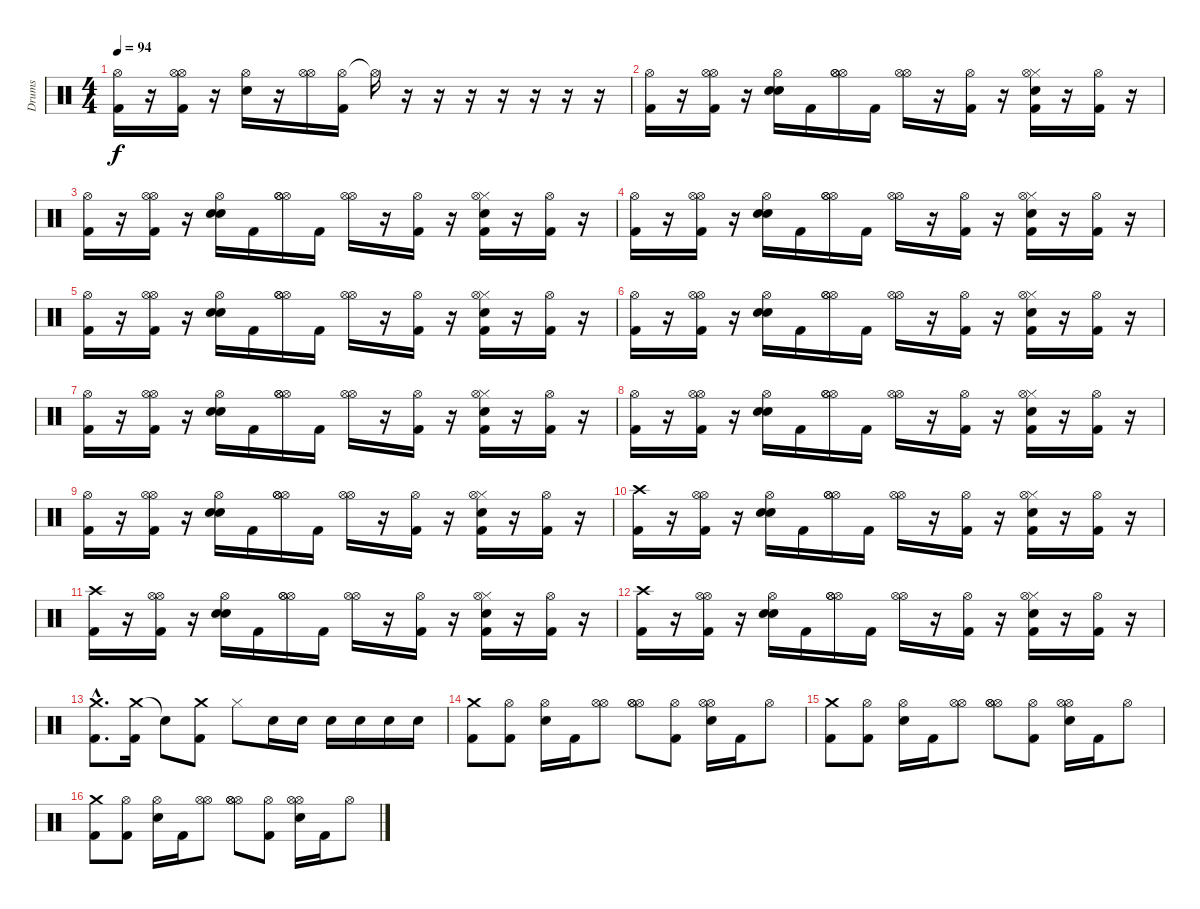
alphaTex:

\track ("Drums" "Drums") {instrument percussion}
\staff {score}
\articulation defaults
\ts (4 4)
\tempo 94
\clef neutral
\ks c
("Hi-Hat (open)" "Kick (hit) 2").16{dy f} r.16 ("Hi-Hat (open)" "Hi-Hat (open)" "Kick (hit) 2").16 r.16 ("Hi-Hat (open)" "Snare (hit) 2").16 r.16 ("Hi-Hat (open)" "Hi-Hat (open)").16 ("Hi-Hat (open)" "Kick (hit) 2").16 "Hi-Hat (open)"{t}.16 r.16 r.16 r.16 r.16 r.16 r.16 r.16 |
("Hi-Hat (open)" "Kick (hit) 2").16 r.16 ("Hi-Hat (open)" "Hi-Hat (open)" "Kick (hit) 2").16 r.16 ("Hi-Hat (open)" "Snare (hit) 2" "Snare (hit) 2").16 "Kick (hit) 2".16 ("Hi-Hat (open)" "Hi-Hat (open)" "Hi-Hat (open)").16 "Kick (hit) 2".16 ("Hi-Hat (open)" "Hi-Hat (open)").16 r.16 ("Hi-Hat (open)" "Kick (hit) 2").16 r.16 ("Hi-Hat (closed)" "Snare (hit) 2" "Hi-Hat (open)" "Kick (hit) 2").16 r.16 ("Hi-Hat (open)" "Kick (hit) 2").16 r.16 |
("Hi-Hat (open)" "Kick (hit) 2").16 r.16 ("Hi-Hat (open)" "Hi-Hat (open)" "Kick (hit) 2").16 r.16 ("Hi-Hat (open)" "Snare (hit) 2" "Snare (hit) 2").16 "Kick (hit) 2".16 ("Hi-Hat (open)" "Hi-Hat (open)" "Hi-Hat (open)").16 "Kick (hit) 2".16 ("Hi-Hat (open)" "Hi-Hat (open)").16 r.16 ("Hi-Hat (open)" "Kick (hit) 2").16 r.16 ("Hi-Hat (closed)" "Snare (hit) 2" "Hi-Hat (open)" "Kick (hit) 2").16 r.16 ("Hi-Hat (open)" "Kick (hit) 2").16 r.16 |
("Hi-Hat (open)" "Kick (hit) 2").16 r.16 ("Hi-Hat (open)" "Hi-Hat (open)" "Kick (hit) 2").16 r.16 ("Hi-Hat (open)" "Snare (hit) 2" "Snare (hit) 2").16 "Kick (hit) 2".16 ("Hi-Hat (open)" "Hi-Hat (open)" "Hi-Hat (open)").16 "Kick (hit) 2".16 ("Hi-Hat (open)" "Hi-Hat (open)").16 r.16 ("Hi-Hat (open)" "Kick (hit) 2").16 r.16 ("Hi-Hat (closed)" "Snare (hit) 2" "Hi-Hat (open)" "Kick (hit) 2").16 r.16 ("Hi-Hat (open)" "Kick (hit) 2").16 r.16 |
("Hi-Hat (open)" "Kick (hit) 2").16 r.16 ("Hi-Hat (open)" "Hi-Hat (open)" "Kick (hit) 2").16 r.16 ("Hi-Hat (open)" "Snare (hit) 2" "Snare (hit) 2").16 "Kick (hit) 2".16 ("Hi-Hat (open)" "Hi-Hat (open)" "Hi-Hat (open)").16 "Kick (hit) 2".16 ("Hi-Hat (open)" "Hi-Hat (open)").16 r.16 ("Hi-Hat (open)" "Kick (hit) 2").16 r.16 ("Hi-Hat (closed)" "Snare (hit) 2" "Hi-Hat (open)" "Kick (hit) 2").16 r.16 ("Hi-Hat (open)" "Kick (hit) 2").16 r.16 |
("Hi-Hat (open)" "Kick (hit) 2").16 r.16 ("Hi-Hat (open)" "Hi-Hat (open)" "Kick (hit) 2").16 r.16 ("Hi-Hat (open)" "Snare (hit) 2" "Snare (hit) 2").16 "Kick (hit) 2".16 ("Hi-Hat (open)" "Hi-Hat (open)" "Hi-Hat (open)").16 "Kick (hit) 2".16 ("Hi-Hat (open)" "Hi-Hat (open)").16 r.16 ("Hi-Hat (open)" "Kick (hit) 2").16 r.16 ("Hi-Hat (closed)" "Snare (hit) 2" "Hi-Hat (open)" "Kick (hit) 2").16 r.16 ("Hi-Hat (open)" "Kick (hit) 2").16 r.16 |
("Hi-Hat (open)" "Kick (hit) 2").16 r.16 ("Hi-Hat (open)" "Hi-Hat (open)" "Kick (hit) 2").16 r.16 ("Hi-Hat (open)" "Snare (hit) 2" "Snare (hit) 2").16 "Kick (hit) 2".16 ("Hi-Hat (open)" "Hi-Hat (open)" "Hi-Hat (open)").16 "Kick (hit) 2".16 ("Hi-Hat (open)" "Hi-Hat (open)").16 r.16 ("Hi-Hat (open)" "Kick (hit) 2").16 r.16 ("Hi-Hat (closed)" "Snare (hit) 2" "Hi-Hat (open)" "Kick (hit) 2").16 r.16 ("Hi-Hat (open)" "Kick (hit) 2").16 r.16 |
("Hi-Hat (open)" "Kick (hit) 2").16 r.16 ("Hi-Hat (open)" "Hi-Hat (open)" "Kick (hit) 2").16 r.16 ("Hi-Hat (open)" "Snare (hit) 2" "Snare (hit) 2").16 "Kick (hit) 2".16 ("Hi-Hat (open)" "Hi-Hat (open)" "Hi-Hat (open)").16 "Kick (hit) 2".16 ("Hi-Hat (open)" "Hi-Hat (open)").16 r.16 ("Hi-Hat (open)" "Kick (hit) 2").16 r.16 ("Hi-Hat (closed)" "Snare (hit) 2" "Hi-Hat (open)" "Kick (hit) 2").16 r.16 ("Hi-Hat (open)" "Kick (hit) 2").16 r.16 |
("Hi-Hat (open)" "Kick (hit) 2").16 r.16 ("Hi-Hat (open)" "Hi-Hat (open)" "Kick (hit) 2").16 r.16 ("Hi-Hat (open)" "Snare (hit) 2" "Snare (hit) 2").16 "Kick (hit) 2".16 ("Hi-Hat (open)" "Hi-Hat (open)" "Hi-Hat (open)").16 "Kick (hit) 2".16 ("Hi-Hat (open)" "Hi-Hat (open)").16 r.16 ("Hi-Hat (open)" "Kick (hit) 2").16 r.16 ("Hi-Hat (closed)" "Snare (hit) 2" "Hi-Hat (open)" "Kick (hit) 2").16 r.16 ("Hi-Hat (open)" "Kick (hit) 2").16 r.16 |
("Crash high (hit)" "Kick (hit) 2").16 r.16 ("Hi-Hat (open)" "Hi-Hat (open)" "Kick (hit) 2").16 r.16 ("Hi-Hat (open)" "Snare (hit) 2" "Snare (hit) 2").16 "Kick (hit) 2".16 ("Hi-Hat (open)" "Hi-Hat (open)" "Hi-Hat (open)").16 "Kick (hit) 2".16 ("Hi-Hat (open)" "Hi-Hat (open)").16 r.16 ("Hi-Hat (open)" "Kick (hit) 2").16 r.16 ("Hi-Hat (closed)" "Snare (hit) 2" "Hi-Hat (open)" "Kick (hit) 2").16 r.16 ("Hi-Hat (open)" "Kick (hit) 2").16 r.16 |
("Crash high (hit)" "Kick (hit) 2").16 r.16 ("Hi-Hat (open)" "Hi-Hat (open)" "Kick (hit) 2").16 r.16 ("Hi-Hat (open)" "Snare (hit) 2" "Snare (hit) 2").16 "Kick (hit) 2".16 ("Hi-Hat (open)" "Hi-Hat (open)" "Hi-Hat (open)").16 "Kick (hit) 2".16 ("Hi-Hat (open)" "Hi-Hat (open)").16 r.16 ("Hi-Hat (open)" "Kick (hit) 2").16 r.16 ("Hi-Hat (closed)" "Snare (hit) 2" "Hi-Hat (open)" "Kick (hit) 2").16 r.16 ("Hi-Hat (open)" "Kick (hit) 2").16 r.16 |
("Crash high (hit)" "Kick (hit) 2").16 r.16 ("Hi-Hat (open)" "Hi-Hat (open)" "Kick (hit) 2").16 r.16 ("Hi-Hat (open)" "Snare (hit) 2" "Snare (hit) 2").16 "Kick (hit) 2".16 ("Hi-Hat (open)" "Hi-Hat (open)" "Hi-Hat (open)").16 "Kick (hit) 2".16 ("Hi-Hat (open)" "Hi-Hat (open)").16 r.16 ("Hi-Hat (open)" "Kick (hit) 2").16 r.16 ("Hi-Hat (closed)" "Snare (hit) 2" "Hi-Hat (open)" "Kick (hit) 2").16 r.16 ("Hi-Hat (open)" "Kick (hit) 2").16 r.16 |
("Crash medium (hit)"{hac} "Kick (hit) 2"{hac}).8{d volume 16} ("Crash medium (hit)" "Kick (hit) 2").16 "Snare (hit)"{t}.8 ("Crash medium (hit)" "Kick (hit) 2").8 "Hi-Hat (closed)".8 "Snare (hit) 2".16 "Snare (hit) 2".16 "Snare (hit) 2".16 "Snare (hit) 2".16 "Snare (hit) 2".16 "Snare (hit) 2".16 |
("Crash medium (hit)" "Kick (hit) 2").8 ("Kick (hit) 2" "Hi-Hat (open)").8 ("Hi-Hat (open)" "Snare (hit) 2").16 "Kick (hit) 2".16 ("Hi-Hat (open)" "Hi-Hat (open)").8 ("Hi-Hat (open)" "Hi-Hat (open)" "Hi-Hat (open)").8 ("Hi-Hat (open)" "Kick (hit) 2").8 ("Hi-Hat (open)" "Snare (hit) 2" "Hi-Hat (open)").16 "Kick (hit) 2".16 "Hi-Hat (open)".8 |
("Crash medium (hit)" "Kick (hit) 2").8 ("Kick (hit) 2" "Hi-Hat (open)").8 ("Hi-Hat (open)" "Snare (hit) 2").16 "Kick (hit) 2".16 ("Hi-Hat (open)" "Hi-Hat (open)").8 ("Hi-Hat (open)" "Hi-Hat (open)" "Hi-Hat (open)").8 ("Hi-Hat (open)" "Kick (hit) 2").8 ("Hi-Hat (open)" "Snare (hit) 2" "Hi-Hat (open)").16 "Kick (hit) 2".16 "Hi-Hat (open)".8 |
("Crash medium (hit)" "Kick (hit) 2").8 ("Kick (hit) 2" "Hi-Hat (open)").8 ("Hi-Hat (open)" "Snare (hit) 2").16 "Kick (hit) 2".16 ("Hi-Hat (open)" "Hi-Hat (open)").8 ("Hi-Hat (open)" "Hi-Hat (open)" "Hi-Hat (open)").8 ("Hi-Hat (open)" "Kick (hit) 2").8 ("Hi-Hat (open)" "Snare (hit) 2" "Hi-Hat (open)").16 "Kick (hit) 2".16 "Hi-Hat (open)".8
